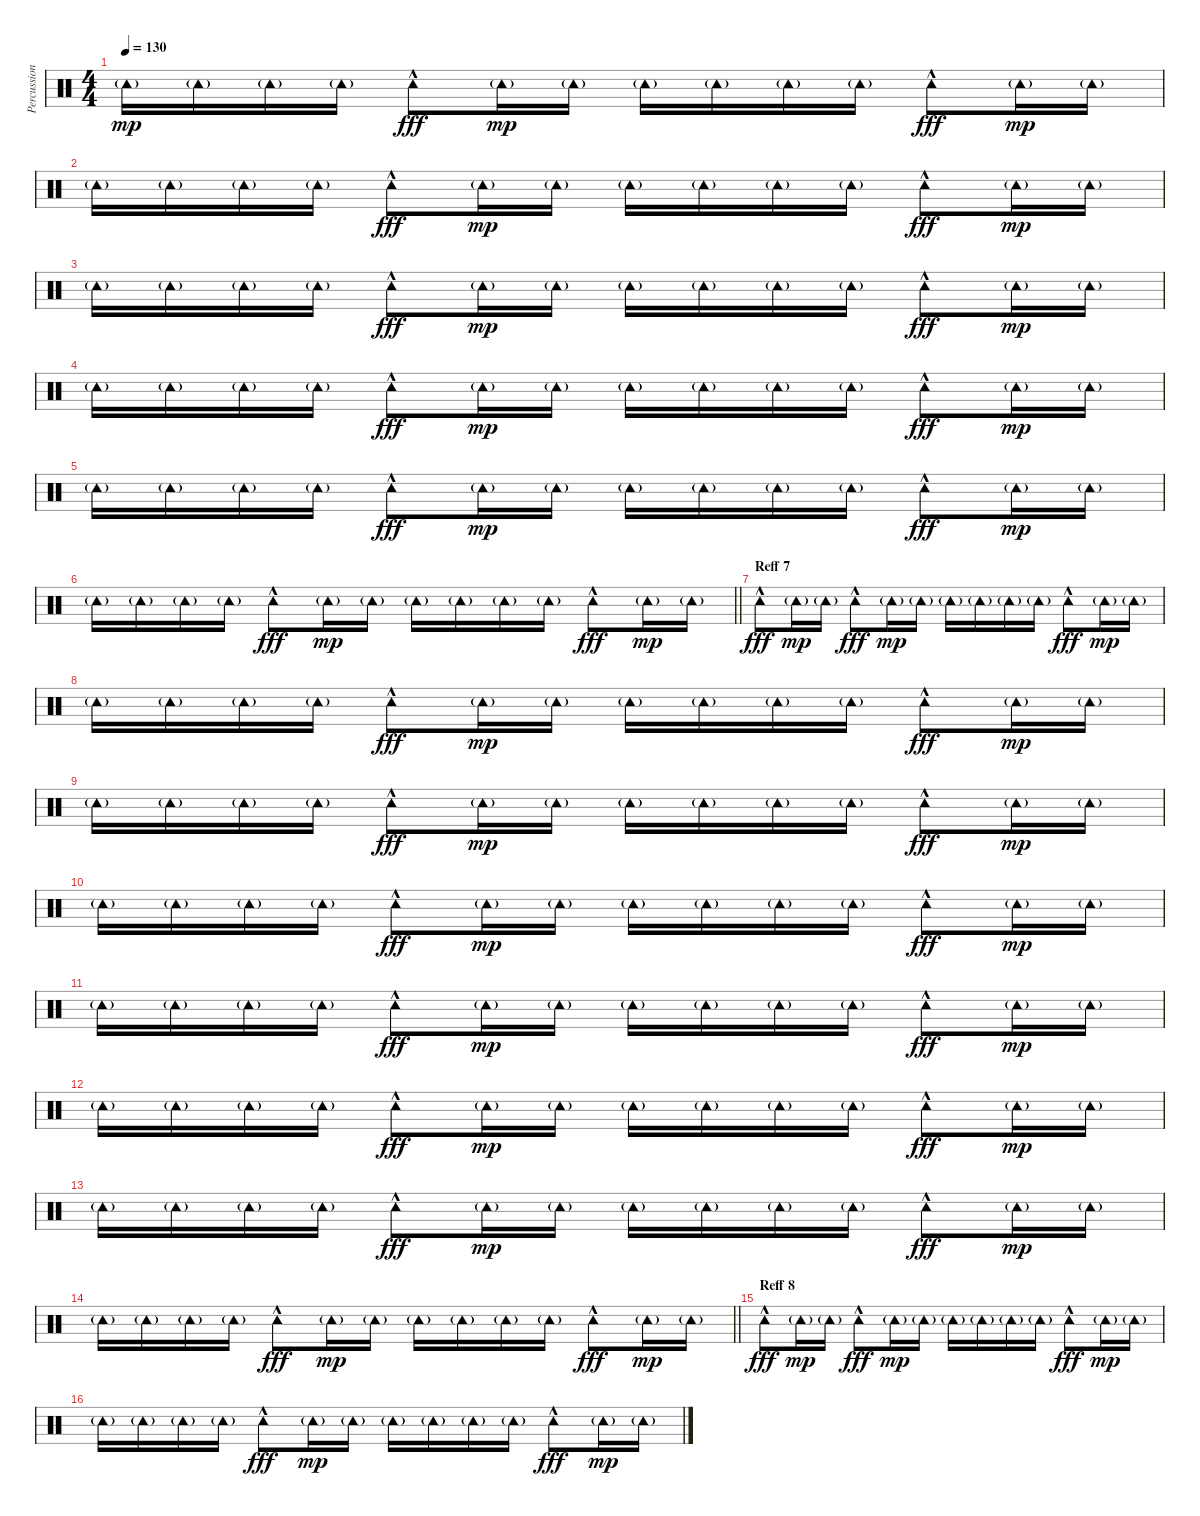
\track ("Percussion 2" "Percussion") {instrument percussion}
\staff {score}
\articulation defaults
\ts (4 4)
\tempo 130
\clef neutral
\ks c "Tambourine (hit)"{g}.16{dy mp} "Tambourine (hit)"{g}.16 "Tambourine (hit)"{g}.16 "Tambourine (hit)"{g}.16 "Tambourine (hit)"{hac}.8{dy fff} "Tambourine (hit)"{g}.16{dy mp} "Tambourine (hit)"{g}.16 "Tambourine (hit)"{g}.16 "Tambourine (hit)"{g}.16 "Tambourine (hit)"{g}.16 "Tambourine (hit)"{g}.16 "Tambourine (hit)"{hac}.8{dy fff} "Tambourine (hit)"{g}.16{dy mp} "Tambourine (hit)"{g}.16
|
"Tambourine (hit)"{g}.16 "Tambourine (hit)"{g}.16 "Tambourine (hit)"{g}.16 "Tambourine (hit)"{g}.16 "Tambourine (hit)"{hac}.8{dy fff} "Tambourine (hit)"{g}.16{dy mp} "Tambourine (hit)"{g}.16 "Tambourine (hit)"{g}.16 "Tambourine (hit)"{g}.16 "Tambourine (hit)"{g}.16 "Tambourine (hit)"{g}.16 "Tambourine (hit)"{hac}.8{dy fff} "Tambourine (hit)"{g}.16{dy mp} "Tambourine (hit)"{g}.16 |
"Tambourine (hit)"{g}.16 "Tambourine (hit)"{g}.16 "Tambourine (hit)"{g}.16 "Tambourine (hit)"{g}.16 "Tambourine (hit)"{hac}.8{dy fff} "Tambourine (hit)"{g}.16{dy mp} "Tambourine (hit)"{g}.16 "Tambourine (hit)"{g}.16 "Tambourine (hit)"{g}.16 "Tambourine (hit)"{g}.16 "Tambourine (hit)"{g}.16 "Tambourine (hit)"{hac}.8{dy fff} "Tambourine (hit)"{g}.16{dy mp} "Tambourine (hit)"{g}.16 |
"Tambourine (hit)"{g}.16 "Tambourine (hit)"{g}.16 "Tambourine (hit)"{g}.16 "Tambourine (hit)"{g}.16 "Tambourine (hit)"{hac}.8{dy fff} "Tambourine (hit)"{g}.16{dy mp} "Tambourine (hit)"{g}.16 "Tambourine (hit)"{g}.16 "Tambourine (hit)"{g}.16 "Tambourine (hit)"{g}.16 "Tambourine (hit)"{g}.16 "Tambourine (hit)"{hac}.8{dy fff} "Tambourine (hit)"{g}.16{dy mp} "Tambourine (hit)"{g}.16 |
"Tambourine (hit)"{g}.16 "Tambourine (hit)"{g}.16 "Tambourine (hit)"{g}.16 "Tambourine (hit)"{g}.16 "Tambourine (hit)"{hac}.8{dy fff} "Tambourine (hit)"{g}.16{dy mp} "Tambourine (hit)"{g}.16 "Tambourine (hit)"{g}.16 "Tambourine (hit)"{g}.16 "Tambourine (hit)"{g}.16 "Tambourine (hit)"{g}.16 "Tambourine (hit)"{hac}.8{dy fff} "Tambourine (hit)"{g}.16{dy mp} "Tambourine (hit)"{g}.16 |
\barLineRight lightlight "Tambourine (hit)"{g}.16 "Tambourine (hit)"{g}.16 "Tambourine (hit)"{g}.16 "Tambourine (hit)"{g}.16 "Tambourine (hit)"{hac}.8{dy fff} "Tambourine (hit)"{g}.16{dy mp} "Tambourine (hit)"{g}.16 "Tambourine (hit)"{g}.16 "Tambourine (hit)"{g}.16 "Tambourine (hit)"{g}.16 "Tambourine (hit)"{g}.16 "Tambourine (hit)"{hac}.8{dy fff} "Tambourine (hit)"{g}.16{dy mp} "Tambourine (hit)"{g}.16
|
\section ("" "Reff 7")
"Tambourine (hit)"{hac}.8{dy fff} "Tambourine (hit)"{g}.16{dy mp} "Tambourine (hit)"{g}.16 "Tambourine (hit)"{hac}.8{dy fff} "Tambourine (hit)"{g}.16{dy mp} "Tambourine (hit)"{g}.16 "Tambourine (hit)"{g}.16 "Tambourine (hit)"{g}.16 "Tambourine (hit)"{g}.16 "Tambourine (hit)"{g}.16 "Tambourine (hit)"{hac}.8{dy fff} "Tambourine (hit)"{g}.16{dy mp} "Tambourine (hit)"{g}.16 |
"Tambourine (hit)"{g}.16 "Tambourine (hit)"{g}.16 "Tambourine (hit)"{g}.16 "Tambourine (hit)"{g}.16 "Tambourine (hit)"{hac}.8{dy fff} "Tambourine (hit)"{g}.16{dy mp} "Tambourine (hit)"{g}.16 "Tambourine (hit)"{g}.16 "Tambourine (hit)"{g}.16 "Tambourine (hit)"{g}.16 "Tambourine (hit)"{g}.16 "Tambourine (hit)"{hac}.8{dy fff} "Tambourine (hit)"{g}.16{dy mp} "Tambourine (hit)"{g}.16 |
"Tambourine (hit)"{g}.16 "Tambourine (hit)"{g}.16 "Tambourine (hit)"{g}.16 "Tambourine (hit)"{g}.16 "Tambourine (hit)"{hac}.8{dy fff} "Tambourine (hit)"{g}.16{dy mp} "Tambourine (hit)"{g}.16 "Tambourine (hit)"{g}.16 "Tambourine (hit)"{g}.16 "Tambourine (hit)"{g}.16 "Tambourine (hit)"{g}.16 "Tambourine (hit)"{hac}.8{dy fff} "Tambourine (hit)"{g}.16{dy mp} "Tambourine (hit)"{g}.16 |
"Tambourine (hit)"{g}.16 "Tambourine (hit)"{g}.16 "Tambourine (hit)"{g}.16 "Tambourine (hit)"{g}.16 "Tambourine (hit)"{hac}.8{dy fff} "Tambourine (hit)"{g}.16{dy mp} "Tambourine (hit)"{g}.16 "Tambourine (hit)"{g}.16 "Tambourine (hit)"{g}.16 "Tambourine (hit)"{g}.16 "Tambourine (hit)"{g}.16 "Tambourine (hit)"{hac}.8{dy fff} "Tambourine (hit)"{g}.16{dy mp} "Tambourine (hit)"{g}.16 |
"Tambourine (hit)"{g}.16 "Tambourine (hit)"{g}.16 "Tambourine (hit)"{g}.16 "Tambourine (hit)"{g}.16 "Tambourine (hit)"{hac}.8{dy fff} "Tambourine (hit)"{g}.16{dy mp} "Tambourine (hit)"{g}.16 "Tambourine (hit)"{g}.16 "Tambourine (hit)"{g}.16 "Tambourine (hit)"{g}.16 "Tambourine (hit)"{g}.16 "Tambourine (hit)"{hac}.8{dy fff} "Tambourine (hit)"{g}.16{dy mp} "Tambourine (hit)"{g}.16 |
"Tambourine (hit)"{g}.16 "Tambourine (hit)"{g}.16 "Tambourine (hit)"{g}.16 "Tambourine (hit)"{g}.16 "Tambourine (hit)"{hac}.8{dy fff} "Tambourine (hit)"{g}.16{dy mp} "Tambourine (hit)"{g}.16 "Tambourine (hit)"{g}.16 "Tambourine (hit)"{g}.16 "Tambourine (hit)"{g}.16 "Tambourine (hit)"{g}.16 "Tambourine (hit)"{hac}.8{dy fff} "Tambourine (hit)"{g}.16{dy mp} "Tambourine (hit)"{g}.16 |
"Tambourine (hit)"{g}.16 "Tambourine (hit)"{g}.16 "Tambourine (hit)"{g}.16 "Tambourine (hit)"{g}.16 "Tambourine (hit)"{hac}.8{dy fff} "Tambourine (hit)"{g}.16{dy mp} "Tambourine (hit)"{g}.16 "Tambourine (hit)"{g}.16 "Tambourine (hit)"{g}.16 "Tambourine (hit)"{g}.16 "Tambourine (hit)"{g}.16 "Tambourine (hit)"{hac}.8{dy fff} "Tambourine (hit)"{g}.16{dy mp} "Tambourine (hit)"{g}.16 |
\barLineRight lightlight "Tambourine (hit)"{g}.16 "Tambourine (hit)"{g}.16 "Tambourine (hit)"{g}.16 "Tambourine (hit)"{g}.16 "Tambourine (hit)"{hac}.8{dy fff} "Tambourine (hit)"{g}.16{dy mp} "Tambourine (hit)"{g}.16 "Tambourine (hit)"{g}.16 "Tambourine (hit)"{g}.16 "Tambourine (hit)"{g}.16 "Tambourine (hit)"{g}.16 "Tambourine (hit)"{hac}.8{dy fff} "Tambourine (hit)"{g}.16{dy mp} "Tambourine (hit)"{g}.16
|
\section ("" "Reff 8")
"Tambourine (hit)"{hac}.8{dy fff} "Tambourine (hit)"{g}.16{dy mp} "Tambourine (hit)"{g}.16 "Tambourine (hit)"{hac}.8{dy fff} "Tambourine (hit)"{g}.16{dy mp} "Tambourine (hit)"{g}.16 "Tambourine (hit)"{g}.16 "Tambourine (hit)"{g}.16 "Tambourine (hit)"{g}.16 "Tambourine (hit)"{g}.16 "Tambourine (hit)"{hac}.8{dy fff} "Tambourine (hit)"{g}.16{dy mp} "Tambourine (hit)"{g}.16 |
"Tambourine (hit)"{g}.16 "Tambourine (hit)"{g}.16 "Tambourine (hit)"{g}.16 "Tambourine (hit)"{g}.16 "Tambourine (hit)"{hac}.8{dy fff} "Tambourine (hit)"{g}.16{dy mp} "Tambourine (hit)"{g}.16 "Tambourine (hit)"{g}.16 "Tambourine (hit)"{g}.16 "Tambourine (hit)"{g}.16 "Tambourine (hit)"{g}.16 "Tambourine (hit)"{hac}.8{dy fff} "Tambourine (hit)"{g}.16{dy mp} "Tambourine (hit)"{g}.16
